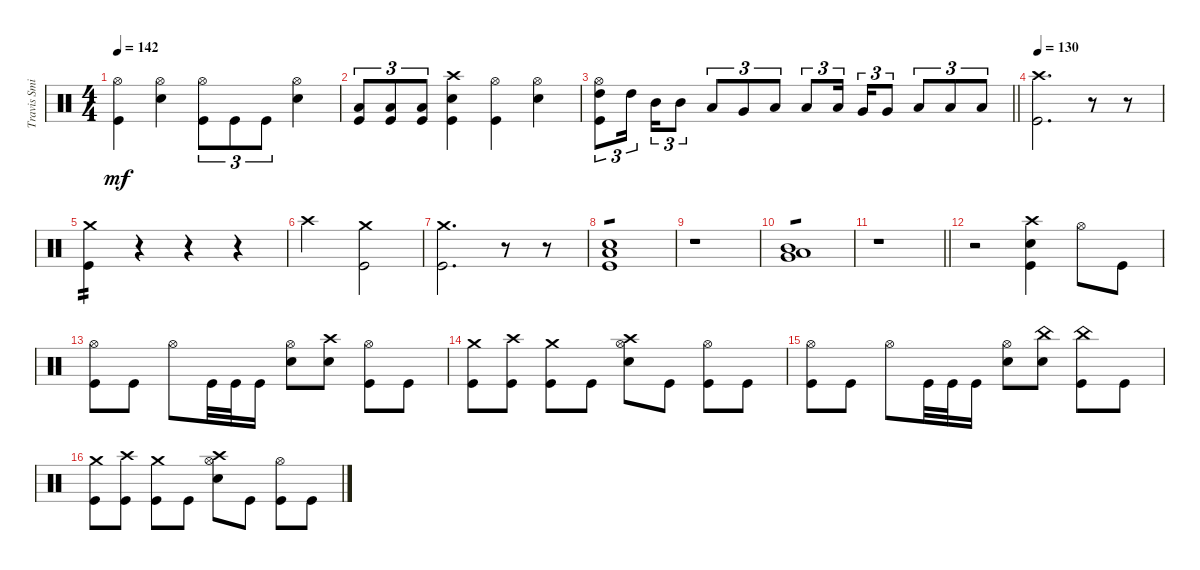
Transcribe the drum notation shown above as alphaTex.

\track ("Travis Smith" "Travis Smi") {instrument percussion}
\staff {score}
\articulation defaults
\ts (4 4)
\tempo 142
\clef neutral
\ks c
("Hi-Hat (open)" "Kick (hit)").4{dy mf} ("Hi-Hat (open)" "Snare (hit) 2").4 ("Hi-Hat (open)" "Kick (hit)").8{tu (3 2)} "Kick (hit)".8{tu (3 2)} "Kick (hit)".8{tu (3 2)} ("Hi-Hat (open)" "Snare (hit) 2").4 |
("Low Tom (hit)" "Kick (hit)").8{tu (3 2)} ("Low Tom (hit)" "Kick (hit)").8{tu (3 2)} ("Low Tom (hit)" "Kick (hit)").8{tu (3 2)} ("Crash high (hit)" "Snare (hit) 2" "Kick (hit)").4 ("Hi-Hat (open)" "Kick (hit)").4 ("Hi-Hat (open)" "Snare (hit) 2").4 |
\barLineRight lightlight
("High Tom (hit)" "Hi-Hat (open)" "Kick (hit)").8{tu (3 2)} "High Tom (hit)".16{tu (3 2)} "Mid Tom (hit)".16{tu (3 2)} "Mid Tom (hit)".8{tu (3 2)} "Low Tom (hit)".8{tu (3 2)} "Very Low Tom (hit)".8{tu (3 2)} "Low Floor Tom (hit)".8{tu (3 2)} "Low Tom (hit)".8{tu (3 2)} "Low Tom (hit)".16{tu (3 2)} "Very Low Tom (hit)".16{tu (3 2)} "Very Low Tom (hit)".8{tu (3 2)} "Low Floor Tom (hit)".8{tu (3 2)} "Low Floor Tom (hit)".8{tu (3 2)} "Low Floor Tom (hit)".8{tu (3 2)} |
\section ("" "")
\tempo 130
("Crash high (hit)" "Kick (hit)").2{d} r.8 r.8 |
("Crash medium (hit)" "Kick (hit)").4{tp 2} r.4 r.4 r.4 |
"Crash high (hit)".2 ("Crash medium (hit)" "Kick (hit)").2 |
("Crash medium (hit)" "Kick (hit)").2{d} r.8 r.8 |
("Low Floor Tom (hit)" "Snare (hit) 2" "Kick (hit)").1{tp 1} |
r.1 |
("Low Tom (hit)" "Mid Tom (hit)" "Very Low Tom (hit)").1{tp 1} |
\barLineRight lightlight
r.1 |
\section ("" "")
r.2 ("Crash high (hit)" "Kick (hit)" "Snare (hit) 2").4 "Hi-Hat (open)".8 "Kick (hit)".8 |
("Hi-Hat (open)" "Kick (hit)").8 "Kick (hit)".8 "Hi-Hat (open)".8 "Kick (hit)".32 "Kick (hit)".32 "Kick (hit)".16 ("Hi-Hat (open)" "Snare (hit) 2").8 ("Crash high (hit)" "Snare (hit) 2").8 ("Hi-Hat (open)" "Kick (hit)").8 "Kick (hit)".8 |
("Crash medium (hit)" "Kick (hit)").8 ("Crash high (hit)" "Kick (hit)").8 ("Crash medium (hit)" "Kick (hit)").8 "Kick (hit)".8 ("Crash high (hit)" "Hi-Hat (open)" "Snare (hit) 2").8 "Kick (hit)".8 ("Hi-Hat (open)" "Kick (hit)").8 "Kick (hit)".8 |
("Hi-Hat (open)" "Kick (hit)").8 "Kick (hit)".8 "Hi-Hat (open)".8 "Kick (hit)".32 "Kick (hit)".32 "Kick (hit)".16 ("Hi-Hat (open)" "Snare (hit) 2").8 ("China (hit)" "Snare (hit) 2").8 ("China (hit)" "Kick (hit)").8 "Kick (hit)".8 |
("Crash medium (hit)" "Kick (hit)").8 ("Crash high (hit)" "Kick (hit)").8 ("Crash medium (hit)" "Kick (hit)").8 "Kick (hit)".8 ("Crash high (hit)" "Hi-Hat (open)" "Snare (hit) 2").8 "Kick (hit)".8 ("Hi-Hat (open)" "Kick (hit)").8 "Kick (hit)".8
